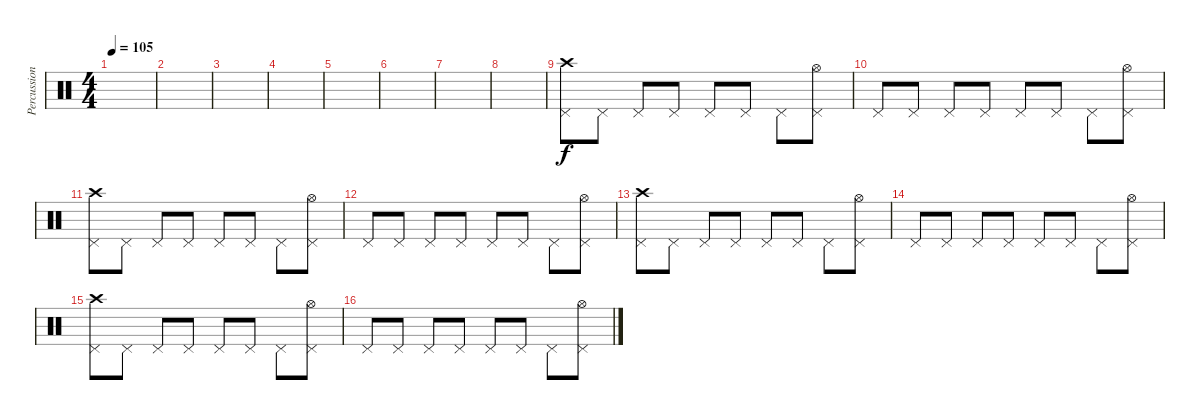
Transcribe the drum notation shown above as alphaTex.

\track ("Percussion" "Percussion") {instrument percussion}
\staff {score}
\articulation defaults
\ts (4 4)
\tempo 105
\clef neutral
\ks c
|
|
|
|
|
|
|
|
("Pedal Hi-Hat (hit)" "Crash high (hit)").8 "Pedal Hi-Hat (hit)".8 "Pedal Hi-Hat (hit)".8 "Pedal Hi-Hat (hit)".8 "Pedal Hi-Hat (hit)".8 "Pedal Hi-Hat (hit)".8 "Pedal Hi-Hat (hit)".8 ("Pedal Hi-Hat (hit)" "Hi-Hat (open)").8 |
"Pedal Hi-Hat (hit)".8 "Pedal Hi-Hat (hit)".8 "Pedal Hi-Hat (hit)".8 "Pedal Hi-Hat (hit)".8 "Pedal Hi-Hat (hit)".8 "Pedal Hi-Hat (hit)".8 "Pedal Hi-Hat (hit)".8 ("Pedal Hi-Hat (hit)" "Hi-Hat (open)").8 |
("Pedal Hi-Hat (hit)" "Crash high (hit)").8 "Pedal Hi-Hat (hit)".8 "Pedal Hi-Hat (hit)".8 "Pedal Hi-Hat (hit)".8 "Pedal Hi-Hat (hit)".8 "Pedal Hi-Hat (hit)".8 "Pedal Hi-Hat (hit)".8 ("Pedal Hi-Hat (hit)" "Hi-Hat (open)").8 |
"Pedal Hi-Hat (hit)".8 "Pedal Hi-Hat (hit)".8 "Pedal Hi-Hat (hit)".8 "Pedal Hi-Hat (hit)".8 "Pedal Hi-Hat (hit)".8 "Pedal Hi-Hat (hit)".8 "Pedal Hi-Hat (hit)".8 ("Pedal Hi-Hat (hit)" "Hi-Hat (open)").8 |
("Pedal Hi-Hat (hit)" "Crash high (hit)").8 "Pedal Hi-Hat (hit)".8 "Pedal Hi-Hat (hit)".8 "Pedal Hi-Hat (hit)".8 "Pedal Hi-Hat (hit)".8 "Pedal Hi-Hat (hit)".8 "Pedal Hi-Hat (hit)".8 ("Pedal Hi-Hat (hit)" "Hi-Hat (open)").8 |
"Pedal Hi-Hat (hit)".8 "Pedal Hi-Hat (hit)".8 "Pedal Hi-Hat (hit)".8 "Pedal Hi-Hat (hit)".8 "Pedal Hi-Hat (hit)".8 "Pedal Hi-Hat (hit)".8 "Pedal Hi-Hat (hit)".8 ("Pedal Hi-Hat (hit)" "Hi-Hat (open)").8 |
("Pedal Hi-Hat (hit)" "Crash high (hit)").8 "Pedal Hi-Hat (hit)".8 "Pedal Hi-Hat (hit)".8 "Pedal Hi-Hat (hit)".8 "Pedal Hi-Hat (hit)".8 "Pedal Hi-Hat (hit)".8 "Pedal Hi-Hat (hit)".8 ("Pedal Hi-Hat (hit)" "Hi-Hat (open)").8 |
"Pedal Hi-Hat (hit)".8 "Pedal Hi-Hat (hit)".8 "Pedal Hi-Hat (hit)".8 "Pedal Hi-Hat (hit)".8 "Pedal Hi-Hat (hit)".8 "Pedal Hi-Hat (hit)".8 "Pedal Hi-Hat (hit)".8 ("Pedal Hi-Hat (hit)" "Hi-Hat (open)").8
